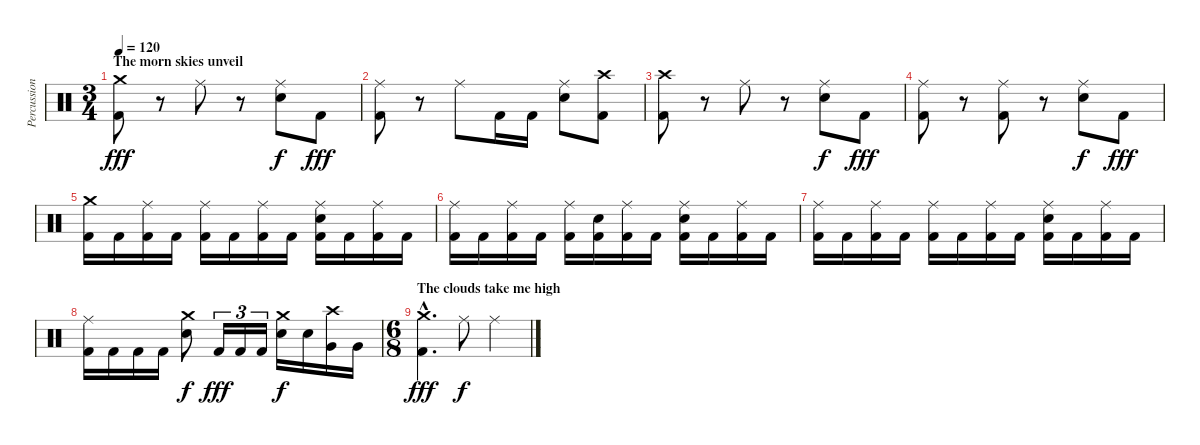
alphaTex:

\track ("Percussion" "Percussion") {instrument percussion}
\staff {score}
\articulation defaults
\ts (3 4)
\section ("" "The morn skies unveil")
\tempo 120
\clef neutral
\ks c
("Crash medium (hit)" "Kick (hit) 2").8{dy fff} r.8 "Ride (middle)".8 r.8 ("Ride (middle)" "Electric Snare (hit)").8{dy f} "Kick (hit) 2".8{dy fff} |
("Ride (middle)" "Kick (hit) 2").8 r.8 "Ride (middle)".8 "Kick (hit) 2".16 "Kick (hit) 2".16 ("Ride (middle)" "Electric Snare (hit)").8 ("Crash high (hit)" "Kick (hit) 2").8 |
("Crash high (hit)" "Kick (hit) 2").8 r.8 "Ride (middle)".8 r.8 ("Ride (middle)" "Electric Snare (hit)").8{dy f} "Kick (hit) 2".8{dy fff} |
("Ride (middle)" "Kick (hit) 2").8 r.8 ("Ride (middle)" "Kick (hit) 2").8 r.8 ("Ride (middle)" "Electric Snare (hit)").8{dy f} "Kick (hit) 2".8{dy fff} |
("Crash medium (hit)" "Kick (hit) 2").16 "Kick (hit) 2".16 ("Ride (middle)" "Kick (hit) 2").16 "Kick (hit) 2".16 ("Ride (middle)" "Kick (hit) 2").16 "Kick (hit) 2".16 ("Ride (middle)" "Kick (hit) 2").16 "Kick (hit) 2".16 ("Ride (middle)" "Electric Snare (hit)" "Kick (hit) 2").16 "Kick (hit) 2".16 ("Ride (middle)" "Kick (hit) 2").16 "Kick (hit) 2".16 |
("Ride (middle)" "Kick (hit) 2").16 "Kick (hit) 2".16 ("Ride (middle)" "Kick (hit) 2").16 "Kick (hit) 2".16 ("Ride (middle)" "Kick (hit) 2").16 ("Electric Snare (hit)" "Kick (hit) 2").16 ("Ride (middle)" "Kick (hit) 2").16 "Kick (hit) 2".16 ("Ride (middle)" "Electric Snare (hit)" "Kick (hit) 2").16 "Kick (hit) 2".16 ("Ride (middle)" "Kick (hit) 2").16 "Kick (hit) 2".16 |
("Ride (middle)" "Kick (hit) 2").16 "Kick (hit) 2".16 ("Ride (middle)" "Kick (hit) 2").16 "Kick (hit) 2".16 ("Ride (middle)" "Kick (hit) 2").16 "Kick (hit) 2".16 ("Ride (middle)" "Kick (hit) 2").16 "Kick (hit) 2".16 ("Ride (middle)" "Electric Snare (hit)" "Kick (hit) 2").16 "Kick (hit) 2".16 ("Ride (middle)" "Kick (hit) 2").16 "Kick (hit) 2".16 |
("Ride (middle)" "Kick (hit) 2").16 "Kick (hit) 2".16 "Kick (hit) 2".16 "Kick (hit) 2".16 ("Crash medium (hit)" "Electric Snare (hit)").8{dy f} "Kick (hit) 2".16{tu (3 2) dy fff} "Kick (hit) 2".16{tu (3 2)} "Kick (hit) 2".16{tu (3 2)} ("Crash medium (hit)" "Electric Snare (hit)").16{dy f} "Electric Snare (hit)".16 ("Crash high (hit)" "Very Low Tom (hit)").16 "Very Low Tom (hit)".16 |
\ts (6 8)
\section ("" "The clouds take me high")
("Crash medium (hit)"{hac} "Kick (hit) 2"{hac}).4{d dy fff} "Ride (middle)".8{dy f} "Ride (middle)".4
